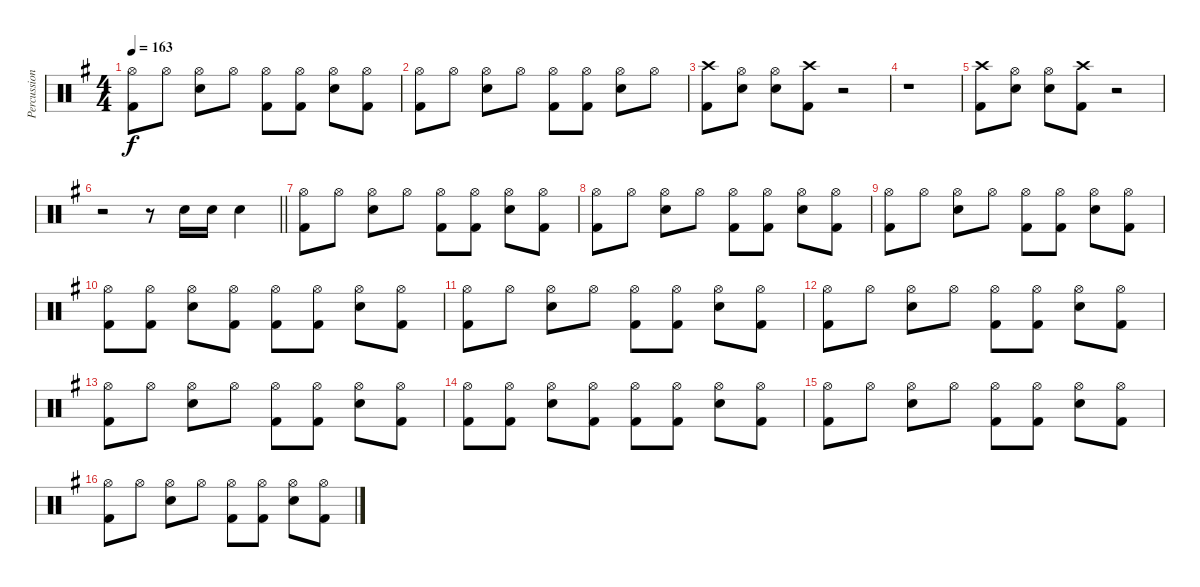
\track ("Percussion" "Percussion") {instrument percussion}
\staff {score}
\articulation defaults
\ts (4 4)
\tempo 163
\clef neutral
\ks g
("Hi-Hat (open)" "Kick (hit) 2").8{dy f} "Hi-Hat (open)".8 ("Hi-Hat (open)" "Snare (hit) 2").8 "Hi-Hat (open)".8 ("Hi-Hat (open)" "Kick (hit) 2").8 ("Hi-Hat (open)" "Kick (hit) 2").8 ("Hi-Hat (open)" "Snare (hit) 2").8 ("Hi-Hat (open)" "Kick (hit) 2").8 |
("Hi-Hat (open)" "Kick (hit) 2").8 "Hi-Hat (open)".8 ("Hi-Hat (open)" "Snare (hit) 2").8 "Hi-Hat (open)".8 ("Hi-Hat (open)" "Kick (hit) 2").8 ("Hi-Hat (open)" "Kick (hit) 2").8 ("Hi-Hat (open)" "Snare (hit) 2").8 "Hi-Hat (open)".8 |
("Crash high (hit)" "Kick (hit) 2").8 ("Hi-Hat (open)" "Snare (hit) 2").8 ("Hi-Hat (open)" "Snare (hit) 2").8 ("Crash high (hit)" "Kick (hit) 2").8 r.2 |
r.1 |
("Crash high (hit)" "Kick (hit) 2").8 ("Hi-Hat (open)" "Snare (hit) 2").8 ("Hi-Hat (open)" "Snare (hit) 2").8 ("Crash high (hit)" "Kick (hit) 2").8 r.2 |
\barLineRight lightlight
r.2 r.8 "Snare (hit) 2".16 "Snare (hit) 2".16 "Snare (hit) 2".4 |
("Hi-Hat (open)" "Kick (hit) 2").8 "Hi-Hat (open)".8 ("Hi-Hat (open)" "Snare (hit) 2").8 "Hi-Hat (open)".8 ("Hi-Hat (open)" "Kick (hit) 2").8 ("Hi-Hat (open)" "Kick (hit) 2").8 ("Hi-Hat (open)" "Snare (hit) 2").8 ("Hi-Hat (open)" "Kick (hit) 2").8 |
("Hi-Hat (open)" "Kick (hit) 2").8 "Hi-Hat (open)".8 ("Hi-Hat (open)" "Snare (hit) 2").8 "Hi-Hat (open)".8 ("Hi-Hat (open)" "Kick (hit) 2").8 ("Hi-Hat (open)" "Kick (hit) 2").8 ("Hi-Hat (open)" "Snare (hit) 2").8 ("Hi-Hat (open)" "Kick (hit) 2").8 |
("Hi-Hat (open)" "Kick (hit) 2").8 "Hi-Hat (open)".8 ("Hi-Hat (open)" "Snare (hit) 2").8 "Hi-Hat (open)".8 ("Hi-Hat (open)" "Kick (hit) 2").8 ("Hi-Hat (open)" "Kick (hit) 2").8 ("Hi-Hat (open)" "Snare (hit) 2").8 ("Hi-Hat (open)" "Kick (hit) 2").8 |
("Hi-Hat (open)" "Kick (hit) 2").8 ("Hi-Hat (open)" "Kick (hit) 2").8 ("Hi-Hat (open)" "Snare (hit) 2").8 ("Hi-Hat (open)" "Kick (hit) 2").8 ("Hi-Hat (open)" "Kick (hit) 2").8 ("Hi-Hat (open)" "Kick (hit) 2").8 ("Hi-Hat (open)" "Snare (hit) 2").8 ("Hi-Hat (open)" "Kick (hit) 2").8 |
("Hi-Hat (open)" "Kick (hit) 2").8 "Hi-Hat (open)".8 ("Hi-Hat (open)" "Snare (hit) 2").8 "Hi-Hat (open)".8 ("Hi-Hat (open)" "Kick (hit) 2").8 ("Hi-Hat (open)" "Kick (hit) 2").8 ("Hi-Hat (open)" "Snare (hit) 2").8 ("Hi-Hat (open)" "Kick (hit) 2").8 |
("Hi-Hat (open)" "Kick (hit) 2").8 "Hi-Hat (open)".8 ("Hi-Hat (open)" "Snare (hit) 2").8 "Hi-Hat (open)".8 ("Hi-Hat (open)" "Kick (hit) 2").8 ("Hi-Hat (open)" "Kick (hit) 2").8 ("Hi-Hat (open)" "Snare (hit) 2").8 ("Hi-Hat (open)" "Kick (hit) 2").8 |
("Hi-Hat (open)" "Kick (hit) 2").8 "Hi-Hat (open)".8 ("Hi-Hat (open)" "Snare (hit) 2").8 "Hi-Hat (open)".8 ("Hi-Hat (open)" "Kick (hit) 2").8 ("Hi-Hat (open)" "Kick (hit) 2").8 ("Hi-Hat (open)" "Snare (hit) 2").8 ("Hi-Hat (open)" "Kick (hit) 2").8 |
("Hi-Hat (open)" "Kick (hit) 2").8 ("Hi-Hat (open)" "Kick (hit) 2").8 ("Hi-Hat (open)" "Snare (hit) 2").8 ("Hi-Hat (open)" "Kick (hit) 2").8 ("Hi-Hat (open)" "Kick (hit) 2").8 ("Hi-Hat (open)" "Kick (hit) 2").8 ("Hi-Hat (open)" "Snare (hit) 2").8 ("Hi-Hat (open)" "Kick (hit) 2").8 |
("Hi-Hat (open)" "Kick (hit) 2").8 "Hi-Hat (open)".8 ("Hi-Hat (open)" "Snare (hit) 2").8 "Hi-Hat (open)".8 ("Hi-Hat (open)" "Kick (hit) 2").8 ("Hi-Hat (open)" "Kick (hit) 2").8 ("Hi-Hat (open)" "Snare (hit) 2").8 ("Hi-Hat (open)" "Kick (hit) 2").8 |
("Hi-Hat (open)" "Kick (hit) 2").8 "Hi-Hat (open)".8 ("Hi-Hat (open)" "Snare (hit) 2").8 "Hi-Hat (open)".8 ("Hi-Hat (open)" "Kick (hit) 2").8 ("Hi-Hat (open)" "Kick (hit) 2").8 ("Hi-Hat (open)" "Snare (hit) 2").8 ("Hi-Hat (open)" "Kick (hit) 2").8
